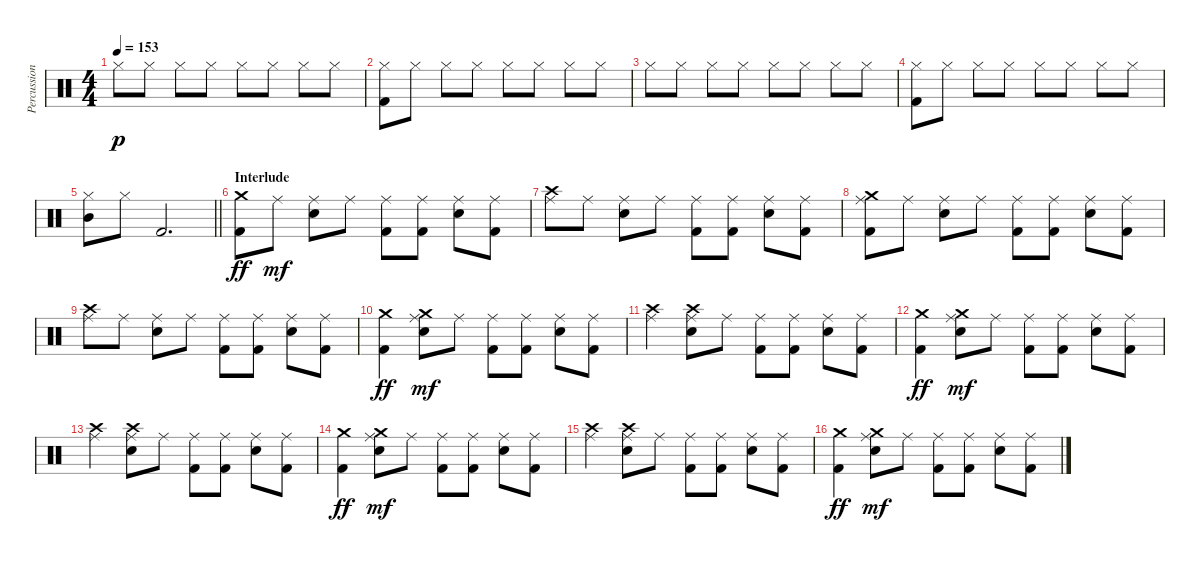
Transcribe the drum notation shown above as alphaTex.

\track ("Percussion" "Percussion") {instrument percussion}
\staff {score}
\articulation defaults
\ts (4 4)
\tempo 153
\clef neutral
\ks c "Hi-Hat (closed)".8{dy p} "Hi-Hat (closed)".8 "Hi-Hat (closed)".8 "Hi-Hat (closed)".8 "Hi-Hat (closed)".8 "Hi-Hat (closed)".8 "Hi-Hat (closed)".8 "Hi-Hat (closed)".8
|
("Hi-Hat (closed)" "Kick (hit) 2").8 "Hi-Hat (closed)".8 "Hi-Hat (closed)".8 "Hi-Hat (closed)".8 "Hi-Hat (closed)".8 "Hi-Hat (closed)".8 "Hi-Hat (closed)".8 "Hi-Hat (closed)".8 |
"Hi-Hat (closed)".8 "Hi-Hat (closed)".8 "Hi-Hat (closed)".8 "Hi-Hat (closed)".8 "Hi-Hat (closed)".8 "Hi-Hat (closed)".8 "Hi-Hat (closed)".8 "Hi-Hat (closed)".8 |
("Hi-Hat (closed)" "Kick (hit) 2").8 "Hi-Hat (closed)".8 "Hi-Hat (closed)".8 "Hi-Hat (closed)".8 "Hi-Hat (closed)".8 "Hi-Hat (closed)".8 "Hi-Hat (closed)".8 "Hi-Hat (closed)".8 |
\barLineRight lightlight
("Mid Tom (hit)" "Hi-Hat (closed)").8 "Hi-Hat (closed)".8 "Kick (hit) 2".2{d} |
\section ("" "Interlude")
("Crash medium (hit)" "Kick (hit) 2").8{dy ff} "Ride (middle)".8{dy mf} ("Ride (middle)" "Electric Snare (hit)").8 "Ride (middle)".8 ("Ride (middle)" "Kick (hit) 2").8 ("Ride (middle)" "Kick (hit) 2").8 ("Ride (middle)" "Electric Snare (hit)").8 ("Ride (middle)" "Kick (hit) 2").8 |
("Crash high (hit)" "Ride (middle)").8 "Ride (middle)".8 ("Ride (middle)" "Electric Snare (hit)").8 "Ride (middle)".8 ("Ride (middle)" "Kick (hit) 2").8 ("Ride (middle)" "Kick (hit) 2").8 ("Ride (middle)" "Electric Snare (hit)").8 ("Ride (middle)" "Kick (hit) 2").8 |
("Crash medium (hit)" "Ride (middle)" "Kick (hit) 2").8 "Ride (middle)".8 ("Ride (middle)" "Electric Snare (hit)").8 "Ride (middle)".8 ("Ride (middle)" "Kick (hit) 2").8 ("Ride (middle)" "Kick (hit) 2").8 ("Ride (middle)" "Electric Snare (hit)").8 ("Ride (middle)" "Kick (hit) 2").8 |
("Crash high (hit)" "Ride (middle)").8 "Ride (middle)".8 ("Ride (middle)" "Electric Snare (hit)").8 "Ride (middle)".8 ("Ride (middle)" "Kick (hit) 2").8 ("Ride (middle)" "Kick (hit) 2").8 ("Ride (middle)" "Electric Snare (hit)").8 ("Ride (middle)" "Kick (hit) 2").8 |
("Crash medium (hit)" "Kick (hit) 2").4{dy ff} ("Crash medium (hit)" "Ride (middle)" "Electric Snare (hit)").8{dy mf} "Ride (middle)".8 ("Ride (middle)" "Kick (hit) 2").8 ("Ride (middle)" "Kick (hit) 2").8 ("Ride (middle)" "Electric Snare (hit)").8 ("Ride (middle)" "Kick (hit) 2").8 |
("Crash high (hit)" "Ride (middle)").4 ("Crash high (hit)" "Ride (middle)" "Electric Snare (hit)").8 "Ride (middle)".8 ("Ride (middle)" "Kick (hit) 2").8 ("Ride (middle)" "Kick (hit) 2").8 ("Ride (middle)" "Electric Snare (hit)").8 ("Ride (middle)" "Kick (hit) 2").8 |
("Crash medium (hit)" "Kick (hit) 2").4{dy ff} ("Crash medium (hit)" "Ride (middle)" "Electric Snare (hit)").8{dy mf} "Ride (middle)".8 ("Ride (middle)" "Kick (hit) 2").8 ("Ride (middle)" "Kick (hit) 2").8 ("Ride (middle)" "Electric Snare (hit)").8 ("Ride (middle)" "Kick (hit) 2").8 |
("Crash high (hit)" "Ride (middle)").4 ("Crash high (hit)" "Ride (middle)" "Electric Snare (hit)").8 "Ride (middle)".8 ("Ride (middle)" "Kick (hit) 2").8 ("Ride (middle)" "Kick (hit) 2").8 ("Ride (middle)" "Electric Snare (hit)").8 ("Ride (middle)" "Kick (hit) 2").8 |
("Crash medium (hit)" "Kick (hit) 2").4{dy ff} ("Crash medium (hit)" "Ride (middle)" "Electric Snare (hit)").8{dy mf} "Ride (middle)".8 ("Ride (middle)" "Kick (hit) 2").8 ("Ride (middle)" "Kick (hit) 2").8 ("Ride (middle)" "Electric Snare (hit)").8 ("Ride (middle)" "Kick (hit) 2").8 |
("Crash high (hit)" "Ride (middle)").4 ("Crash high (hit)" "Ride (middle)" "Electric Snare (hit)").8 "Ride (middle)".8 ("Ride (middle)" "Kick (hit) 2").8 ("Ride (middle)" "Kick (hit) 2").8 ("Ride (middle)" "Electric Snare (hit)").8 ("Ride (middle)" "Kick (hit) 2").8 |
("Crash medium (hit)" "Kick (hit) 2").4{dy ff} ("Crash medium (hit)" "Ride (middle)" "Electric Snare (hit)").8{dy mf} "Ride (middle)".8 ("Ride (middle)" "Kick (hit) 2").8 ("Ride (middle)" "Kick (hit) 2").8 ("Ride (middle)" "Electric Snare (hit)").8 ("Ride (middle)" "Kick (hit) 2").8
